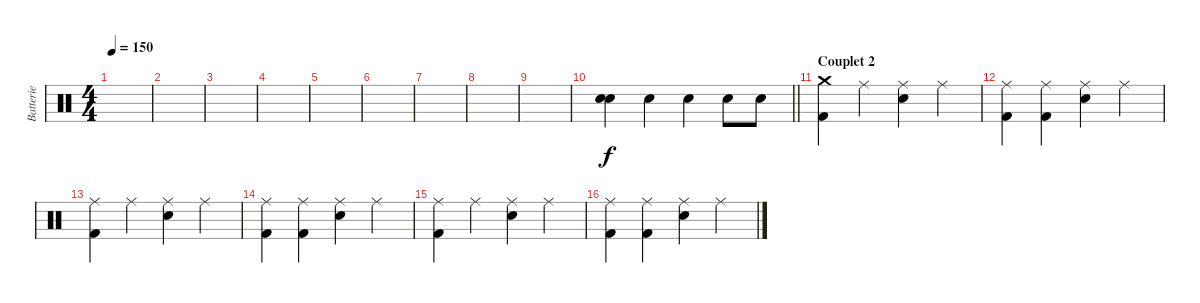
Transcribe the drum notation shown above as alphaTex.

\track ("Batterie" "Batterie") {instrument percussion}
\staff {score}
\articulation defaults
\ts (4 4)
\tempo 150
\clef neutral
\ks c
|
|
|
|
|
|
|
|
|
\barLineRight lightlight
("Electric Snare (hit)" "Electric Snare (hit)").4{bu 120} "Electric Snare (hit)".4 "Electric Snare (hit)".4 "Electric Snare (hit)".8 "Electric Snare (hit)".8 |
\section ("" "Couplet 2")
("Crash medium (hit)" "Kick (hit) 2").4 "Ride (middle)".4 ("Ride (middle)" "Electric Snare (hit)").4 "Ride (middle)".4 |
("Ride (middle)" "Kick (hit) 2").4 ("Ride (middle)" "Kick (hit) 2").4 ("Ride (middle)" "Electric Snare (hit)").4 "Ride (middle)".4 |
("Ride (middle)" "Kick (hit) 2").4 "Ride (middle)".4 ("Ride (middle)" "Electric Snare (hit)").4 "Ride (middle)".4 |
("Ride (middle)" "Kick (hit) 2").4 ("Ride (middle)" "Kick (hit) 2").4 ("Ride (middle)" "Electric Snare (hit)").4 "Ride (middle)".4 |
("Ride (middle)" "Kick (hit) 2").4 "Ride (middle)".4 ("Ride (middle)" "Electric Snare (hit)").4 "Ride (middle)".4 |
("Ride (middle)" "Kick (hit) 2").4 ("Ride (middle)" "Kick (hit) 2").4 ("Ride (middle)" "Electric Snare (hit)").4 "Ride (middle)".4
